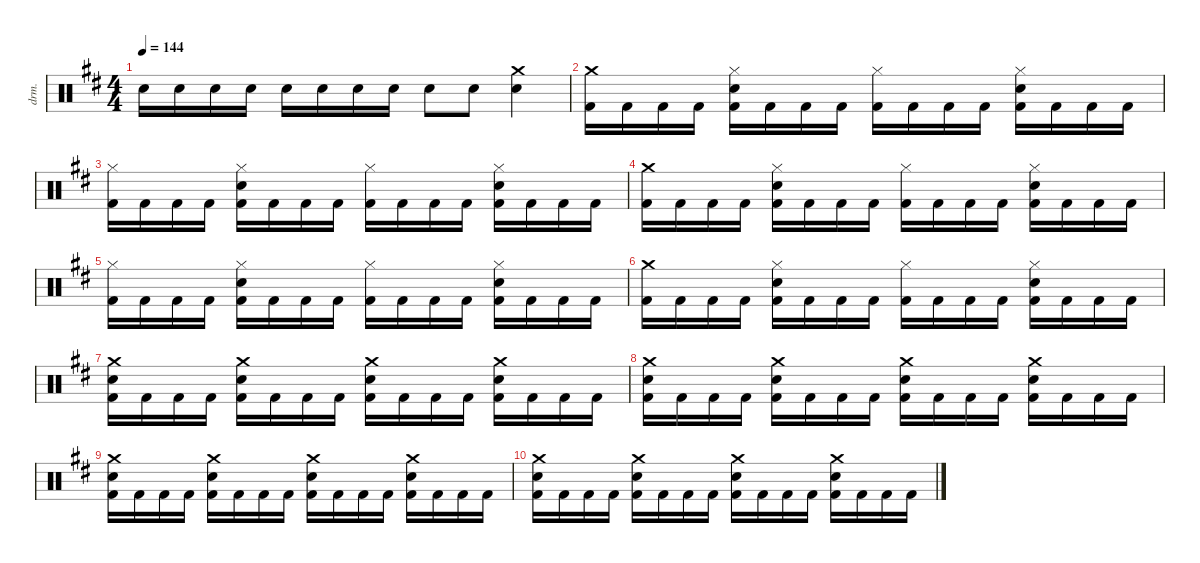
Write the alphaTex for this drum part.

\defaultSystemsLayout 4
\hideDynamics
\bracketExtendMode nobrackets
\otherSystemsTrackNameOrientation horizontal
\track ("Lars - Drums" "drm.") {defaultSystemsLayout 4 instrument percussion}
\staff {score}
\articulation defaults
\ts (4 4)
\tempo 144
\clef neutral
\ks bminor "Snare (hit) 2"{acc forcenatural}.16{dy f beam Down} "Snare (hit) 2"{acc forcenatural}.16{beam Down} "Snare (hit) 2"{acc forcenatural}.16{beam Down} "Snare (hit) 2"{acc forcenatural}.16{beam Down} "Snare (hit) 2"{acc forcenatural}.16{beam Down} "Snare (hit) 2"{acc forcenatural}.16{beam Down} "Snare (hit) 2"{acc forcenatural}.16{beam Down} "Snare (hit) 2"{acc forcenatural}.16{beam Down} "Snare (hit) 2"{acc forcenatural}.8{beam Down} "Snare (hit) 2"{acc forcenatural}.8{beam Down}
("Crash medium (hit)"{acc forcenatural} "Snare (hit) 2"{acc forcenatural}).4{beam Down} |
("Crash medium (hit)"{acc forcenatural} "Kick (hit) 2"{acc forcenatural}).16{beam Down} "Kick (hit) 2"{acc forcenatural}.16{beam Down} "Kick (hit) 2"{acc forcenatural}.16{beam Down} "Kick (hit) 2"{acc forcenatural}.16{beam Down} ("Hi-Hat (closed)"{acc forcenatural} "Snare (hit) 2"{acc forcenatural} "Kick (hit) 2"{acc forcenatural}).16{beam Down} "Kick (hit) 2"{acc forcenatural}.16{beam Down} "Kick (hit) 2"{acc forcenatural}.16{beam Down} "Kick (hit) 2"{acc forcenatural}.16{beam Down} ("Hi-Hat (closed)"{acc forcenatural} "Kick (hit) 2"{acc forcenatural}).16{beam Down} "Kick (hit) 2"{acc forcenatural}.16{beam Down} "Kick (hit) 2"{acc forcenatural}.16{beam Down} "Kick (hit) 2"{acc forcenatural}.16{beam Down} ("Hi-Hat (closed)"{acc forcenatural} "Snare (hit) 2"{acc forcenatural} "Kick (hit) 2"{acc forcenatural}).16{beam Down} "Kick (hit) 2"{acc forcenatural}.16{beam Down} "Kick (hit) 2"{acc forcenatural}.16{beam Down} "Kick (hit) 2"{acc forcenatural}.16{beam Down} |
("Hi-Hat (closed)"{acc forcenatural} "Kick (hit) 2"{acc forcenatural}).16{beam Down} "Kick (hit) 2"{acc forcenatural}.16{beam Down} "Kick (hit) 2"{acc forcenatural}.16{beam Down} "Kick (hit) 2"{acc forcenatural}.16{beam Down} ("Hi-Hat (closed)"{acc forcenatural} "Snare (hit) 2"{acc forcenatural} "Kick (hit) 2"{acc forcenatural}).16{beam Down} "Kick (hit) 2"{acc forcenatural}.16{beam Down} "Kick (hit) 2"{acc forcenatural}.16{beam Down} "Kick (hit) 2"{acc forcenatural}.16{beam Down} ("Hi-Hat (closed)"{acc forcenatural} "Kick (hit) 2"{acc forcenatural}).16{beam Down} "Kick (hit) 2"{acc forcenatural}.16{beam Down} "Kick (hit) 2"{acc forcenatural}.16{beam Down} "Kick (hit) 2"{acc forcenatural}.16{beam Down} ("Hi-Hat (closed)"{acc forcenatural} "Snare (hit) 2"{acc forcenatural} "Kick (hit) 2"{acc forcenatural}).16{beam Down} "Kick (hit) 2"{acc forcenatural}.16{beam Down} "Kick (hit) 2"{acc forcenatural}.16{beam Down} "Kick (hit) 2"{acc forcenatural}.16{beam Down} |
("Crash medium (hit)"{acc forcenatural} "Kick (hit) 2"{acc forcenatural}).16{beam Down} "Kick (hit) 2"{acc forcenatural}.16{beam Down} "Kick (hit) 2"{acc forcenatural}.16{beam Down} "Kick (hit) 2"{acc forcenatural}.16{beam Down} ("Hi-Hat (closed)"{acc forcenatural} "Snare (hit) 2"{acc forcenatural} "Kick (hit) 2"{acc forcenatural}).16{beam Down} "Kick (hit) 2"{acc forcenatural}.16{beam Down} "Kick (hit) 2"{acc forcenatural}.16{beam Down} "Kick (hit) 2"{acc forcenatural}.16{beam Down} ("Hi-Hat (closed)"{acc forcenatural} "Kick (hit) 2"{acc forcenatural}).16{beam Down} "Kick (hit) 2"{acc forcenatural}.16{beam Down} "Kick (hit) 2"{acc forcenatural}.16{beam Down} "Kick (hit) 2"{acc forcenatural}.16{beam Down} ("Hi-Hat (closed)"{acc forcenatural} "Snare (hit) 2"{acc forcenatural} "Kick (hit) 2"{acc forcenatural}).16{beam Down} "Kick (hit) 2"{acc forcenatural}.16{beam Down} "Kick (hit) 2"{acc forcenatural}.16{beam Down} "Kick (hit) 2"{acc forcenatural}.16{beam Down} |
("Hi-Hat (closed)"{acc forcenatural} "Kick (hit) 2"{acc forcenatural}).16{beam Down} "Kick (hit) 2"{acc forcenatural}.16{beam Down} "Kick (hit) 2"{acc forcenatural}.16{beam Down} "Kick (hit) 2"{acc forcenatural}.16{beam Down} ("Hi-Hat (closed)"{acc forcenatural} "Snare (hit) 2"{acc forcenatural} "Kick (hit) 2"{acc forcenatural}).16{beam Down} "Kick (hit) 2"{acc forcenatural}.16{beam Down} "Kick (hit) 2"{acc forcenatural}.16{beam Down} "Kick (hit) 2"{acc forcenatural}.16{beam Down} ("Hi-Hat (closed)"{acc forcenatural} "Kick (hit) 2"{acc forcenatural}).16{beam Down} "Kick (hit) 2"{acc forcenatural}.16{beam Down} "Kick (hit) 2"{acc forcenatural}.16{beam Down} "Kick (hit) 2"{acc forcenatural}.16{beam Down} ("Hi-Hat (closed)"{acc forcenatural} "Snare (hit) 2"{acc forcenatural} "Kick (hit) 2"{acc forcenatural}).16{beam Down} "Kick (hit) 2"{acc forcenatural}.16{beam Down} "Kick (hit) 2"{acc forcenatural}.16{beam Down} "Kick (hit) 2"{acc forcenatural}.16{beam Down} |
("Crash medium (hit)"{acc forcenatural} "Kick (hit) 2"{acc forcenatural}).16{beam Down} "Kick (hit) 2"{acc forcenatural}.16{beam Down} "Kick (hit) 2"{acc forcenatural}.16{beam Down} "Kick (hit) 2"{acc forcenatural}.16{beam Down} ("Hi-Hat (closed)"{acc forcenatural} "Snare (hit) 2"{acc forcenatural} "Kick (hit) 2"{acc forcenatural}).16{beam Down} "Kick (hit) 2"{acc forcenatural}.16{beam Down} "Kick (hit) 2"{acc forcenatural}.16{beam Down} "Kick (hit) 2"{acc forcenatural}.16{beam Down} ("Hi-Hat (closed)"{acc forcenatural} "Kick (hit) 2"{acc forcenatural}).16{beam Down} "Kick (hit) 2"{acc forcenatural}.16{beam Down} "Kick (hit) 2"{acc forcenatural}.16{beam Down} "Kick (hit) 2"{acc forcenatural}.16{beam Down} ("Hi-Hat (closed)"{acc forcenatural} "Snare (hit) 2"{acc forcenatural} "Kick (hit) 2"{acc forcenatural}).16{beam Down} "Kick (hit) 2"{acc forcenatural}.16{beam Down} "Kick (hit) 2"{acc forcenatural}.16{beam Down} "Kick (hit) 2"{acc forcenatural}.16{beam Down} |
("Crash medium (hit)"{acc forcenatural} "Snare (hit) 2"{acc forcenatural} "Kick (hit) 2"{acc forcenatural}).16{beam Down} "Kick (hit) 2"{acc forcenatural}.16{beam Down} "Kick (hit) 2"{acc forcenatural}.16{beam Down} "Kick (hit) 2"{acc forcenatural}.16{beam Down} ("Crash medium (hit)"{acc forcenatural} "Snare (hit) 2"{acc forcenatural} "Kick (hit) 2"{acc forcenatural}).16{beam Down} "Kick (hit) 2"{acc forcenatural}.16{beam Down} "Kick (hit) 2"{acc forcenatural}.16{beam Down} "Kick (hit) 2"{acc forcenatural}.16{beam Down} ("Crash medium (hit)"{acc forcenatural} "Snare (hit) 2"{acc forcenatural} "Kick (hit) 2"{acc forcenatural}).16{beam Down} "Kick (hit) 2"{acc forcenatural}.16{beam Down} "Kick (hit) 2"{acc forcenatural}.16{beam Down} "Kick (hit) 2"{acc forcenatural}.16{beam Down} ("Crash medium (hit)"{acc forcenatural} "Snare (hit) 2"{acc forcenatural} "Kick (hit) 2"{acc forcenatural}).16{beam Down} "Kick (hit) 2"{acc forcenatural}.16{beam Down} "Kick (hit) 2"{acc forcenatural}.16{beam Down} "Kick (hit) 2"{acc forcenatural}.16{beam Down} |
("Crash medium (hit)"{acc forcenatural} "Snare (hit) 2"{acc forcenatural} "Kick (hit) 2"{acc forcenatural}).16{beam Down} "Kick (hit) 2"{acc forcenatural}.16{beam Down} "Kick (hit) 2"{acc forcenatural}.16{beam Down} "Kick (hit) 2"{acc forcenatural}.16{beam Down} ("Crash medium (hit)"{acc forcenatural} "Snare (hit) 2"{acc forcenatural} "Kick (hit) 2"{acc forcenatural}).16{beam Down} "Kick (hit) 2"{acc forcenatural}.16{beam Down} "Kick (hit) 2"{acc forcenatural}.16{beam Down} "Kick (hit) 2"{acc forcenatural}.16{beam Down} ("Crash medium (hit)"{acc forcenatural} "Snare (hit) 2"{acc forcenatural} "Kick (hit) 2"{acc forcenatural}).16{beam Down} "Kick (hit) 2"{acc forcenatural}.16{beam Down} "Kick (hit) 2"{acc forcenatural}.16{beam Down} "Kick (hit) 2"{acc forcenatural}.16{beam Down} ("Crash medium (hit)"{acc forcenatural} "Snare (hit) 2"{acc forcenatural} "Kick (hit) 2"{acc forcenatural}).16{beam Down} "Kick (hit) 2"{acc forcenatural}.16{beam Down} "Kick (hit) 2"{acc forcenatural}.16{beam Down} "Kick (hit) 2"{acc forcenatural}.16{beam Down} |
("Crash medium (hit)"{acc forcenatural} "Snare (hit) 2"{acc forcenatural} "Kick (hit) 2"{acc forcenatural}).16{beam Down} "Kick (hit) 2"{acc forcenatural}.16{beam Down} "Kick (hit) 2"{acc forcenatural}.16{beam Down} "Kick (hit) 2"{acc forcenatural}.16{beam Down} ("Crash medium (hit)"{acc forcenatural} "Snare (hit) 2"{acc forcenatural} "Kick (hit) 2"{acc forcenatural}).16{beam Down} "Kick (hit) 2"{acc forcenatural}.16{beam Down} "Kick (hit) 2"{acc forcenatural}.16{beam Down} "Kick (hit) 2"{acc forcenatural}.16{beam Down} ("Crash medium (hit)"{acc forcenatural} "Snare (hit) 2"{acc forcenatural} "Kick (hit) 2"{acc forcenatural}).16{beam Down} "Kick (hit) 2"{acc forcenatural}.16{beam Down} "Kick (hit) 2"{acc forcenatural}.16{beam Down} "Kick (hit) 2"{acc forcenatural}.16{beam Down} ("Crash medium (hit)"{acc forcenatural} "Snare (hit) 2"{acc forcenatural} "Kick (hit) 2"{acc forcenatural}).16{beam Down} "Kick (hit) 2"{acc forcenatural}.16{beam Down} "Kick (hit) 2"{acc forcenatural}.16{beam Down} "Kick (hit) 2"{acc forcenatural}.16{beam Down} |
("Crash medium (hit)"{acc forcenatural} "Snare (hit) 2"{acc forcenatural} "Kick (hit) 2"{acc forcenatural}).16{beam Down} "Kick (hit) 2"{acc forcenatural}.16{beam Down} "Kick (hit) 2"{acc forcenatural}.16{beam Down} "Kick (hit) 2"{acc forcenatural}.16{beam Down} ("Crash medium (hit)"{acc forcenatural} "Snare (hit) 2"{acc forcenatural} "Kick (hit) 2"{acc forcenatural}).16{beam Down} "Kick (hit) 2"{acc forcenatural}.16{beam Down} "Kick (hit) 2"{acc forcenatural}.16{beam Down} "Kick (hit) 2"{acc forcenatural}.16{beam Down} ("Crash medium (hit)"{acc forcenatural} "Snare (hit) 2"{acc forcenatural} "Kick (hit) 2"{acc forcenatural}).16{beam Down} "Kick (hit) 2"{acc forcenatural}.16{beam Down} "Kick (hit) 2"{acc forcenatural}.16{beam Down} "Kick (hit) 2"{acc forcenatural}.16{beam Down} ("Crash medium (hit)"{acc forcenatural} "Snare (hit) 2"{acc forcenatural} "Kick (hit) 2"{acc forcenatural}).16{beam Down} "Kick (hit) 2"{acc forcenatural}.16{beam Down} "Kick (hit) 2"{acc forcenatural}.16{beam Down} "Kick (hit) 2"{acc forcenatural}.16{beam Down}
